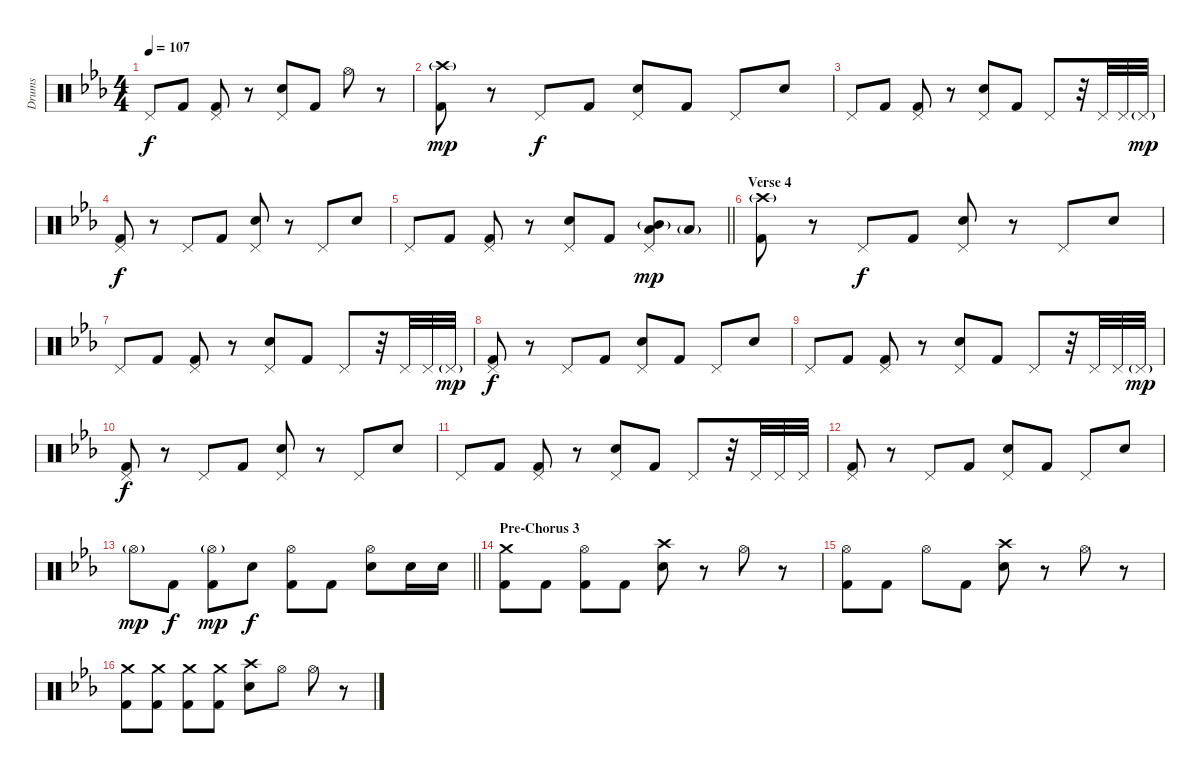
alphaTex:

\track ("Drums" "Drums") {instrument percussion}
\staff {score}
\articulation defaults
\ts (4 4)
\tempo 107
\clef neutral
\ks cminor "Pedal Hi-Hat (hit)".8{dy f} "Kick (hit) 2".8
("Pedal Hi-Hat (hit)" "Kick (hit) 2").8 r.8 ("Pedal Hi-Hat (hit)" "Electric Snare (hit)").8 "Kick (hit) 2".8 "Hi-Hat (open)".8 r.8 |
("Crash high (hit)"{g} "Kick (hit) 2").8{dy mp} r.8 "Pedal Hi-Hat (hit)".8{dy f} "Kick (hit) 2".8 ("Pedal Hi-Hat (hit)" "Electric Snare (hit)").8 "Kick (hit) 2".8 "Pedal Hi-Hat (hit)".8 "Electric Snare (hit)".8 |
"Pedal Hi-Hat (hit)".8 "Kick (hit) 2".8 ("Pedal Hi-Hat (hit)" "Kick (hit) 2").8 r.8 ("Pedal Hi-Hat (hit)" "Electric Snare (hit)").8 "Kick (hit) 2".8 "Pedal Hi-Hat (hit)".8 r.32 "Pedal Hi-Hat (hit)".32 "Pedal Hi-Hat (hit)".32 "Pedal Hi-Hat (hit)"{g}.32{dy mp} |
("Pedal Hi-Hat (hit)" "Kick (hit) 2").8{dy f} r.8 "Pedal Hi-Hat (hit)".8 "Kick (hit) 2".8 ("Pedal Hi-Hat (hit)" "Electric Snare (hit)").8 r.8 "Pedal Hi-Hat (hit)".8 "Electric Snare (hit)".8 |
\barLineRight lightlight "Pedal Hi-Hat (hit)".8 "Kick (hit) 2".8
("Pedal Hi-Hat (hit)" "Kick (hit) 2").8 r.8 ("Pedal Hi-Hat (hit)" "Electric Snare (hit)").8 "Kick (hit) 2".8 ("Pedal Hi-Hat (hit)" "Mid Tom (hit)"{g} "Low Tom (hit)").8{dy mp} "Low Floor Tom (hit)"{g}.8 |
\section ("" "Verse 4")
("Crash high (hit)"{g} "Kick (hit) 2").8 r.8 "Pedal Hi-Hat (hit)".8{dy f} "Kick (hit) 2".8 ("Pedal Hi-Hat (hit)" "Electric Snare (hit)").8 r.8 "Pedal Hi-Hat (hit)".8 "Electric Snare (hit)".8 |
"Pedal Hi-Hat (hit)".8 "Kick (hit) 2".8 ("Pedal Hi-Hat (hit)" "Kick (hit) 2").8 r.8 ("Pedal Hi-Hat (hit)" "Electric Snare (hit)").8 "Kick (hit) 2".8 "Pedal Hi-Hat (hit)".8 r.32 "Pedal Hi-Hat (hit)".32 "Pedal Hi-Hat (hit)".32 "Pedal Hi-Hat (hit)"{g}.32{dy mp} |
("Pedal Hi-Hat (hit)" "Kick (hit) 2").8{dy f} r.8 "Pedal Hi-Hat (hit)".8 "Kick (hit) 2".8 ("Pedal Hi-Hat (hit)" "Electric Snare (hit)").8 "Kick (hit) 2".8 "Pedal Hi-Hat (hit)".8 "Electric Snare (hit)".8 |
"Pedal Hi-Hat (hit)".8 "Kick (hit) 2".8 ("Pedal Hi-Hat (hit)" "Kick (hit) 2").8 r.8 ("Pedal Hi-Hat (hit)" "Electric Snare (hit)").8 "Kick (hit) 2".8 "Pedal Hi-Hat (hit)".8 r.32 "Pedal Hi-Hat (hit)".32 "Pedal Hi-Hat (hit)".32 "Pedal Hi-Hat (hit)"{g}.32{dy mp} |
("Pedal Hi-Hat (hit)" "Kick (hit) 2").8{dy f} r.8 "Pedal Hi-Hat (hit)".8 "Kick (hit) 2".8 ("Pedal Hi-Hat (hit)" "Electric Snare (hit)").8 r.8 "Pedal Hi-Hat (hit)".8 "Electric Snare (hit)".8 |
"Pedal Hi-Hat (hit)".8 "Kick (hit) 2".8 ("Pedal Hi-Hat (hit)" "Kick (hit) 2").8 r.8 ("Pedal Hi-Hat (hit)" "Electric Snare (hit)").8 "Kick (hit) 2".8 "Pedal Hi-Hat (hit)".8 r.32 "Pedal Hi-Hat (hit)".32 "Pedal Hi-Hat (hit)".32 "Pedal Hi-Hat (hit)".32 |
("Pedal Hi-Hat (hit)" "Kick (hit) 2").8 r.8 "Pedal Hi-Hat (hit)".8 "Kick (hit) 2".8 ("Pedal Hi-Hat (hit)" "Electric Snare (hit)").8 "Kick (hit) 2".8 "Pedal Hi-Hat (hit)".8 "Electric Snare (hit)".8 |
\barLineRight lightlight "Hi-Hat (open)"{g}.8{dy mp} "Kick (hit) 2".8{dy f}
("Hi-Hat (open)"{g} "Kick (hit) 2").8{dy mp} "Electric Snare (hit)".8{dy f} ("Hi-Hat (open)" "Kick (hit) 2").8 "Kick (hit) 2".8 ("Hi-Hat (open)" "Electric Snare (hit)").8 "Electric Snare (hit)".16 "Electric Snare (hit)".16 |
\section ("" "Pre-Chorus 3")
("Crash medium (hit)" "Kick (hit) 2").8 "Kick (hit) 2".8 ("Hi-Hat (open)" "Kick (hit) 2").8 "Kick (hit) 2".8 ("Crash high (hit)" "Electric Snare (hit)").8 r.8 "Hi-Hat (open)".8 r.8 |
("Hi-Hat (open)" "Kick (hit) 2").8 "Kick (hit) 2".8 "Hi-Hat (open)".8 "Kick (hit) 2".8 ("Crash high (hit)" "Electric Snare (hit)").8 r.8 "Hi-Hat (open)".8 r.8 |
("Crash medium (hit)" "Kick (hit) 2").8 ("Crash medium (hit)" "Kick (hit) 2").8 ("Crash medium (hit)" "Kick (hit) 2").8 ("Crash medium (hit)" "Kick (hit) 2").8 ("Crash high (hit)" "Electric Snare (hit)").8 "Hi-Hat (open)".8 "Hi-Hat (open)".8 r.8
